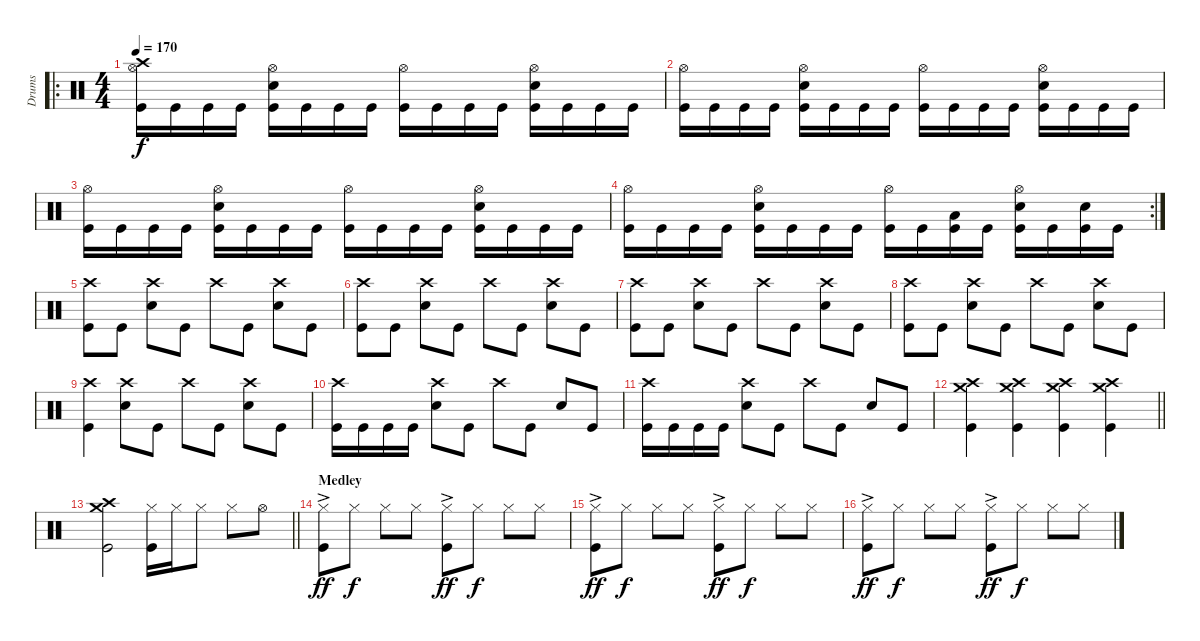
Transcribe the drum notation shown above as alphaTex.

\track ("Drums" "Drums") {instrument percussion}
\staff {score}
\articulation defaults
\ro
\ts (4 4)
\tempo 170
\clef neutral
\ks c
("Hi-Hat (open)" "Crash high (hit)" "Kick (hit)").16{dy f} "Kick (hit)".16 "Kick (hit)".16 "Kick (hit)".16 ("Hi-Hat (open)" "Snare (hit) 2" "Kick (hit)").16 "Kick (hit)".16 "Kick (hit)".16 "Kick (hit)".16 ("Hi-Hat (open)" "Kick (hit)").16 "Kick (hit)".16 "Kick (hit)".16 "Kick (hit)".16 ("Hi-Hat (open)" "Snare (hit) 2" "Kick (hit)").16 "Kick (hit)".16 "Kick (hit)".16 "Kick (hit)".16 |
("Hi-Hat (open)" "Kick (hit)").16 "Kick (hit)".16 "Kick (hit)".16 "Kick (hit)".16 ("Hi-Hat (open)" "Snare (hit) 2" "Kick (hit)").16 "Kick (hit)".16 "Kick (hit)".16 "Kick (hit)".16 ("Hi-Hat (open)" "Kick (hit)").16 "Kick (hit)".16 "Kick (hit)".16 "Kick (hit)".16 ("Hi-Hat (open)" "Snare (hit) 2" "Kick (hit)").16 "Kick (hit)".16 "Kick (hit)".16 "Kick (hit)".16 |
("Hi-Hat (open)" "Kick (hit)").16 "Kick (hit)".16 "Kick (hit)".16 "Kick (hit)".16 ("Hi-Hat (open)" "Snare (hit) 2" "Kick (hit)").16 "Kick (hit)".16 "Kick (hit)".16 "Kick (hit)".16 ("Hi-Hat (open)" "Kick (hit)").16 "Kick (hit)".16 "Kick (hit)".16 "Kick (hit)".16 ("Hi-Hat (open)" "Snare (hit) 2" "Kick (hit)").16 "Kick (hit)".16 "Kick (hit)".16 "Kick (hit)".16 |
\rc 2
("Hi-Hat (open)" "Kick (hit)").16 "Kick (hit)".16 "Kick (hit)".16 "Kick (hit)".16 ("Hi-Hat (open)" "Snare (hit) 2" "Kick (hit)").16 "Kick (hit)".16 "Kick (hit)".16 "Kick (hit)".16 ("Hi-Hat (open)" "Kick (hit)").16 "Kick (hit)".16 ("Low Floor Tom (hit)" "Kick (hit)").16 "Kick (hit)".16 ("Hi-Hat (open)" "Snare (hit) 2" "Kick (hit)").16 "Kick (hit)".16 ("Snare (hit) 2" "Kick (hit)").16 "Kick (hit)".16 |
("Crash high (hit)" "Kick (hit)").8 "Kick (hit)".8 ("Crash high (hit)" "Snare (hit) 2").8 "Kick (hit)".8 "Crash high (hit)".8 "Kick (hit)".8 ("Crash high (hit)" "Snare (hit) 2").8 "Kick (hit)".8 |
("Crash high (hit)" "Kick (hit)").8 "Kick (hit)".8 ("Crash high (hit)" "Snare (hit) 2").8 "Kick (hit)".8 "Crash high (hit)".8 "Kick (hit)".8 ("Crash high (hit)" "Snare (hit) 2").8 "Kick (hit)".8 |
("Crash high (hit)" "Kick (hit)").8 "Kick (hit)".8 ("Crash high (hit)" "Snare (hit) 2").8 "Kick (hit)".8 "Crash high (hit)".8 "Kick (hit)".8 ("Crash high (hit)" "Snare (hit) 2").8 "Kick (hit)".8 |
("Crash high (hit)" "Kick (hit)").8 "Kick (hit)".8 ("Crash high (hit)" "Snare (hit) 2").8 "Kick (hit)".8 "Crash high (hit)".8 "Kick (hit)".8 ("Crash high (hit)" "Snare (hit) 2").8 "Kick (hit)".8 |
("Crash high (hit)" "Kick (hit)").4 ("Crash high (hit)" "Snare (hit) 2").8 "Kick (hit)".8 "Crash high (hit)".8 "Kick (hit)".8 ("Crash high (hit)" "Snare (hit) 2").8 "Kick (hit)".8 |
("Crash high (hit)" "Kick (hit)").16 "Kick (hit)".16 "Kick (hit)".16 "Kick (hit)".16 ("Crash high (hit)" "Snare (hit) 2").8 "Kick (hit)".8 "Crash high (hit)".8 "Kick (hit)".8 "Snare (hit) 2".8 "Kick (hit)".8 |
("Crash high (hit)" "Kick (hit)").16 "Kick (hit)".16 "Kick (hit)".16 "Kick (hit)".16 ("Crash high (hit)" "Snare (hit) 2").8 "Kick (hit)".8 "Crash high (hit)".8 "Kick (hit)".8 "Snare (hit) 2".8 "Kick (hit)".8 |
\barLineRight lightlight
("Crash high (hit)" "Crash medium (hit)" "Kick (hit)").4 ("Crash high (hit)" "Crash medium (hit)" "Kick (hit)").4 ("Crash high (hit)" "Crash medium (hit)" "Kick (hit)").4 ("Crash high (hit)" "Crash medium (hit)" "Kick (hit)").4 |
\barLineRight lightlight
("Crash high (hit)" "Crash medium (hit)" "Kick (hit)").2 ("Hi-Hat (closed)" "Kick (hit)").16 "Hi-Hat (closed)".16 "Hi-Hat (closed)".8 "Hi-Hat (closed)".8 "Hi-Hat (open)".8 |
\section ("" "Medley")
("Hi-Hat (closed)"{ac} "Kick (hit)").8{dy ff} "Hi-Hat (closed)".8{dy f} "Hi-Hat (closed)".8 "Hi-Hat (closed)".8 ("Hi-Hat (closed)"{ac} "Kick (hit)").8{dy ff} "Hi-Hat (closed)".8{dy f} "Hi-Hat (closed)".8 "Hi-Hat (closed)".8 |
("Hi-Hat (closed)"{ac} "Kick (hit)").8{dy ff} "Hi-Hat (closed)".8{dy f} "Hi-Hat (closed)".8 "Hi-Hat (closed)".8 ("Hi-Hat (closed)"{ac} "Kick (hit)").8{dy ff} "Hi-Hat (closed)".8{dy f} "Hi-Hat (closed)".8 "Hi-Hat (closed)".8 |
("Hi-Hat (closed)"{ac} "Kick (hit)").8{dy ff} "Hi-Hat (closed)".8{dy f} "Hi-Hat (closed)".8 "Hi-Hat (closed)".8 ("Hi-Hat (closed)"{ac} "Kick (hit)").8{dy ff} "Hi-Hat (closed)".8{dy f} "Hi-Hat (closed)".8 "Hi-Hat (closed)".8
